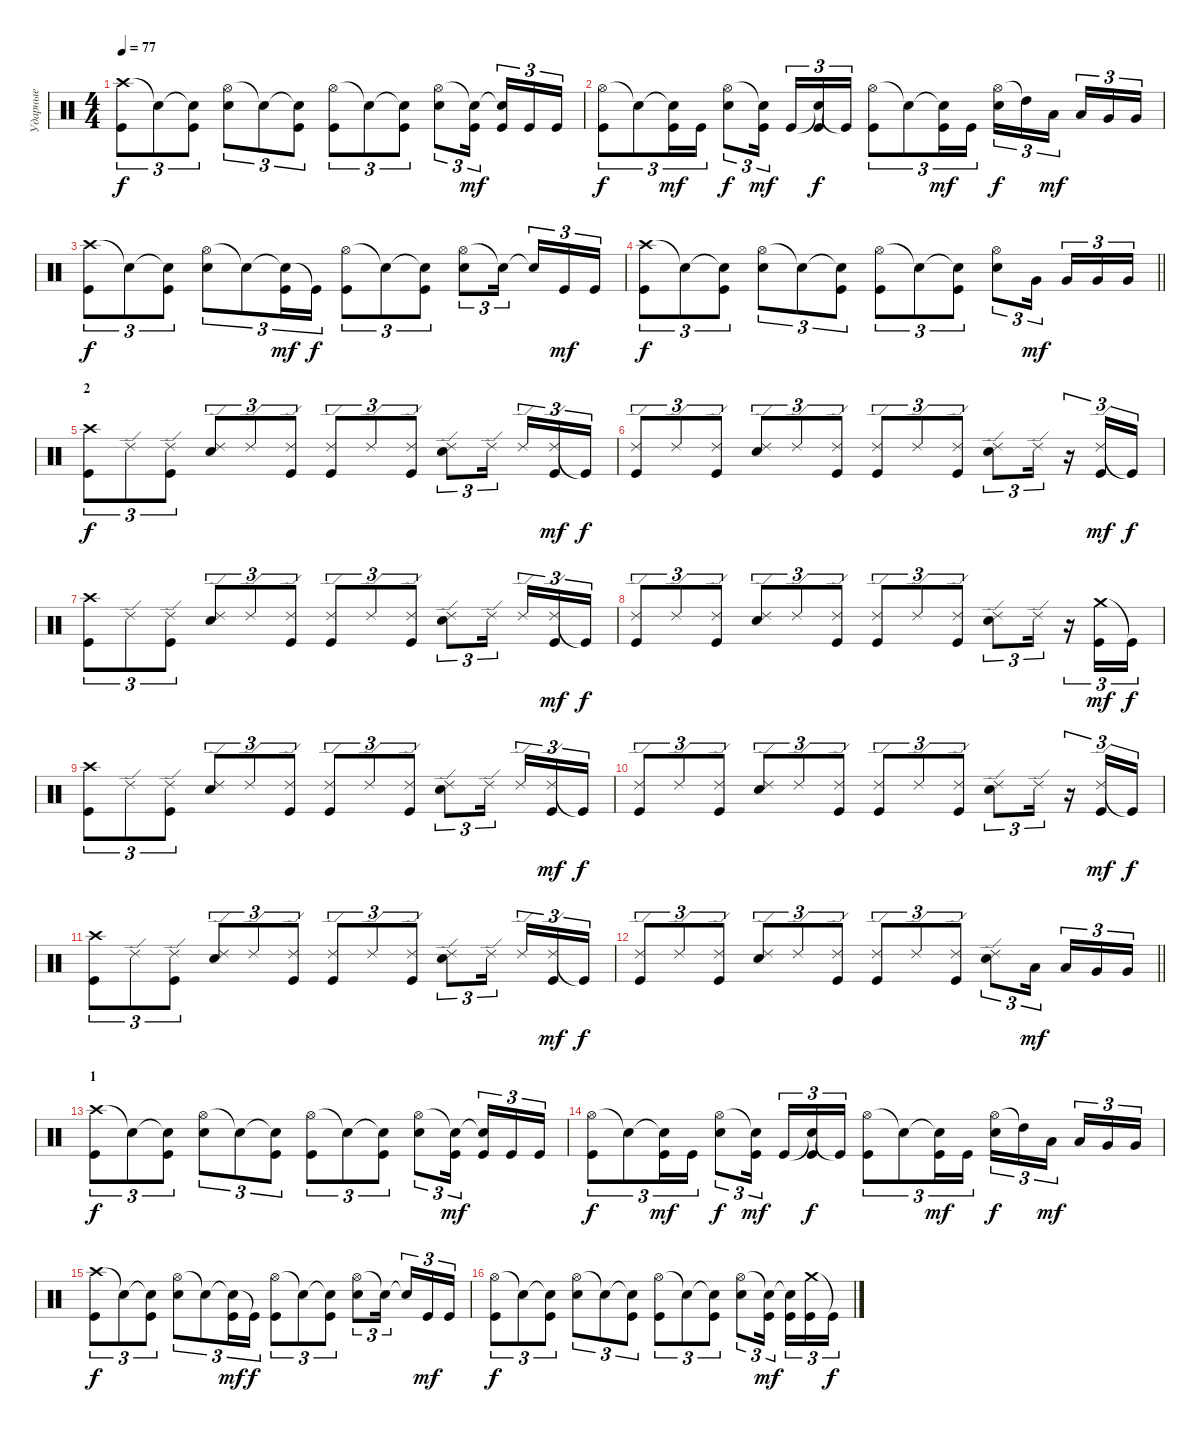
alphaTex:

\track ("Ударные" "Ударные") {instrument percussion}
\staff {score}
\articulation defaults
\ts (4 4)
\tempo 77
\clef neutral
\ks c
("Crash high (hit)" "Kick (hit)").8{tu (3 2) dy f} "Snare (hit)"{t}.8{tu (3 2)} ("Snare (hit)"{t} "Kick (hit)").8{tu (3 2)} ("Hi-Hat (open)" "Snare (hit) 2").8{tu (3 2)} "Snare (hit)"{t}.8{tu (3 2)} ("Snare (hit)"{t} "Kick (hit)").8{tu (3 2)} ("Hi-Hat (open)" "Kick (hit)").8{tu (3 2)} "Snare (hit)"{t}.8{tu (3 2)} ("Snare (hit)"{t} "Kick (hit)").8{tu (3 2)} ("Hi-Hat (open)" "Snare (hit) 2").8{tu (3 2)} ("Snare (hit)"{t} "Kick (hit)").16{tu (3 2) dy mf beam splitsecondary} ("Snare (hit)"{t} "Kick (hit)").16{tu (3 2)} "Kick (hit)".16{tu (3 2)} "Kick (hit)".16{tu (3 2)} |
("Hi-Hat (open)" "Kick (hit)").8{tu (3 2) dy f} "Snare (hit)"{t}.8{tu (3 2)} ("Snare (hit)"{t} "Kick (hit)").16{tu (3 2) dy mf} "Kick (hit)".16{tu (3 2)} ("Hi-Hat (open)" "Snare (hit) 2").8{tu (3 2) dy f} ("Snare (hit)"{t} "Kick (hit)").16{tu (3 2) dy mf beam splitsecondary} "Kick (hit)".16{tu (3 2)} ("Snare (hit)"{t} "Kick (hit)").16{tu (3 2) dy f} "Kick (hit)"{t}.16{tu (3 2)} ("Hi-Hat (open)" "Kick (hit)").8{tu (3 2)} "Snare (hit)"{t}.8{tu (3 2)} ("Snare (hit)"{t} "Kick (hit)").16{tu (3 2) dy mf} "Kick (hit)".16{tu (3 2)} ("Hi-Hat (open)" "Snare (hit) 2").16{tu (3 2) dy f} "High Tom (hit)"{t}.16{tu (3 2)} "Low Tom (hit)".16{tu (3 2) dy mf beam splitsecondary} "Low Tom (hit)".16{tu (3 2)} "Very Low Tom (hit)".16{tu (3 2)} "Very Low Tom (hit)".16{tu (3 2)} |
("Crash high (hit)" "Kick (hit)").8{tu (3 2) dy f} "Snare (hit)"{t}.8{tu (3 2)} ("Snare (hit)"{t} "Kick (hit)").8{tu (3 2)} ("Hi-Hat (open)" "Snare (hit) 2").8{tu (3 2)} "Snare (hit)"{t}.8{tu (3 2)} ("Snare (hit)"{t} "Kick (hit)").16{tu (3 2) dy mf} "Kick (hit)"{t}.16{tu (3 2) dy f} ("Hi-Hat (open)" "Kick (hit)").8{tu (3 2)} "Snare (hit)"{t}.8{tu (3 2)} ("Snare (hit)"{t} "Kick (hit)").8{tu (3 2)} ("Hi-Hat (open)" "Snare (hit) 2").8{tu (3 2)} "Snare (hit)"{t}.16{tu (3 2) beam splitsecondary} "Snare (hit)"{t}.16{tu (3 2)} "Kick (hit)".16{tu (3 2) dy mf} "Kick (hit)".16{tu (3 2)} |
\barLineRight lightlight
("Crash high (hit)" "Kick (hit)").8{tu (3 2) dy f} "Snare (hit)"{t}.8{tu (3 2)} ("Snare (hit)"{t} "Kick (hit)").8{tu (3 2)} ("Hi-Hat (open)" "Snare (hit) 2").8{tu (3 2)} "Snare (hit)"{t}.8{tu (3 2)} ("Snare (hit)"{t} "Kick (hit)").8{tu (3 2)} ("Hi-Hat (open)" "Kick (hit)").8{tu (3 2)} "Snare (hit)"{t}.8{tu (3 2)} ("Snare (hit)"{t} "Kick (hit)").8{tu (3 2)} ("Hi-Hat (open)" "Snare (hit) 2").8{tu (3 2)} "Very Low Tom (hit)".16{tu (3 2) dy mf beam splitsecondary} "Very Low Tom (hit)".16{tu (3 2)} "Very Low Tom (hit)".16{tu (3 2)} "Very Low Tom (hit)".16{tu (3 2)} |
\section ("" "2")
("Crash high (hit)" "Kick (hit)").8{tu (3 2) dy f} "Ride (edge) 2".8{tu (3 2)} ("Ride (edge) 2" "Kick (hit)").8{tu (3 2)} ("Ride (edge) 2" "Snare (hit) 2").8{tu (3 2)} "Ride (edge) 2".8{tu (3 2)} ("Ride (edge) 2" "Kick (hit)").8{tu (3 2)} ("Ride (edge) 2" "Kick (hit)").8{tu (3 2)} "Ride (edge) 2".8{tu (3 2)} ("Ride (edge) 2" "Kick (hit)").8{tu (3 2)} ("Ride (edge) 2" "Snare (hit) 2").8{tu (3 2)} "Ride (edge) 2".16{tu (3 2) beam splitsecondary} "Ride (edge) 2".16{tu (3 2)} ("Ride (edge) 2" "Kick (hit)").16{tu (3 2) dy mf} "Kick (hit)"{t}.16{tu (3 2) dy f} |
("Ride (edge) 2" "Kick (hit)").8{tu (3 2)} "Ride (edge) 2".8{tu (3 2)} ("Ride (edge) 2" "Kick (hit)").8{tu (3 2)} ("Ride (edge) 2" "Snare (hit) 2").8{tu (3 2)} "Ride (edge) 2".8{tu (3 2)} ("Ride (edge) 2" "Kick (hit)").8{tu (3 2)} ("Ride (edge) 2" "Kick (hit)").8{tu (3 2)} "Ride (edge) 2".8{tu (3 2)} ("Ride (edge) 2" "Kick (hit)").8{tu (3 2)} ("Ride (edge) 2" "Snare (hit) 2").8{tu (3 2)} "Ride (edge) 2".16{tu (3 2)} r.16{tu (3 2)} ("Ride (edge) 2" "Kick (hit)").16{tu (3 2) dy mf} "Kick (hit)"{t}.16{tu (3 2) dy f} |
("Crash high (hit)" "Kick (hit)").8{tu (3 2)} "Ride (edge) 2".8{tu (3 2)} ("Ride (edge) 2" "Kick (hit)").8{tu (3 2)} ("Ride (edge) 2" "Snare (hit) 2").8{tu (3 2)} "Ride (edge) 2".8{tu (3 2)} ("Ride (edge) 2" "Kick (hit)").8{tu (3 2)} ("Ride (edge) 2" "Kick (hit)").8{tu (3 2)} "Ride (edge) 2".8{tu (3 2)} ("Ride (edge) 2" "Kick (hit)").8{tu (3 2)} ("Ride (edge) 2" "Snare (hit) 2").8{tu (3 2)} "Ride (edge) 2".16{tu (3 2) beam splitsecondary} "Ride (edge) 2".16{tu (3 2)} ("Ride (edge) 2" "Kick (hit)").16{tu (3 2) dy mf} "Kick (hit)"{t}.16{tu (3 2) dy f} |
("Ride (edge) 2" "Kick (hit)").8{tu (3 2)} "Ride (edge) 2".8{tu (3 2)} ("Ride (edge) 2" "Kick (hit)").8{tu (3 2)} ("Ride (edge) 2" "Snare (hit) 2").8{tu (3 2)} "Ride (edge) 2".8{tu (3 2)} ("Ride (edge) 2" "Kick (hit)").8{tu (3 2)} ("Ride (edge) 2" "Kick (hit)").8{tu (3 2)} "Ride (edge) 2".8{tu (3 2)} ("Ride (edge) 2" "Kick (hit)").8{tu (3 2)} ("Ride (edge) 2" "Snare (hit) 2").8{tu (3 2)} "Ride (edge) 2".16{tu (3 2)} r.16{tu (3 2)} ("Crash medium (hit)" "Kick (hit)").16{tu (3 2) dy mf} "Kick (hit)"{t}.16{tu (3 2) dy f} |
("Crash high (hit)" "Kick (hit)").8{tu (3 2)} "Ride (edge) 2".8{tu (3 2)} ("Ride (edge) 2" "Kick (hit)").8{tu (3 2)} ("Ride (edge) 2" "Snare (hit) 2").8{tu (3 2)} "Ride (edge) 2".8{tu (3 2)} ("Ride (edge) 2" "Kick (hit)").8{tu (3 2)} ("Ride (edge) 2" "Kick (hit)").8{tu (3 2)} "Ride (edge) 2".8{tu (3 2)} ("Ride (edge) 2" "Kick (hit)").8{tu (3 2)} ("Ride (edge) 2" "Snare (hit) 2").8{tu (3 2)} "Ride (edge) 2".16{tu (3 2) beam splitsecondary} "Ride (edge) 2".16{tu (3 2)} ("Ride (edge) 2" "Kick (hit)").16{tu (3 2) dy mf} "Kick (hit)"{t}.16{tu (3 2) dy f} |
("Ride (edge) 2" "Kick (hit)").8{tu (3 2)} "Ride (edge) 2".8{tu (3 2)} ("Ride (edge) 2" "Kick (hit)").8{tu (3 2)} ("Ride (edge) 2" "Snare (hit) 2").8{tu (3 2)} "Ride (edge) 2".8{tu (3 2)} ("Ride (edge) 2" "Kick (hit)").8{tu (3 2)} ("Ride (edge) 2" "Kick (hit)").8{tu (3 2)} "Ride (edge) 2".8{tu (3 2)} ("Ride (edge) 2" "Kick (hit)").8{tu (3 2)} ("Ride (edge) 2" "Snare (hit) 2").8{tu (3 2)} "Ride (edge) 2".16{tu (3 2)} r.16{tu (3 2)} ("Ride (edge) 2" "Kick (hit)").16{tu (3 2) dy mf} "Kick (hit)"{t}.16{tu (3 2) dy f} |
("Crash high (hit)" "Kick (hit)").8{tu (3 2)} "Ride (edge) 2".8{tu (3 2)} ("Ride (edge) 2" "Kick (hit)").8{tu (3 2)} ("Ride (edge) 2" "Snare (hit) 2").8{tu (3 2)} "Ride (edge) 2".8{tu (3 2)} ("Ride (edge) 2" "Kick (hit)").8{tu (3 2)} ("Ride (edge) 2" "Kick (hit)").8{tu (3 2)} "Ride (edge) 2".8{tu (3 2)} ("Ride (edge) 2" "Kick (hit)").8{tu (3 2)} ("Ride (edge) 2" "Snare (hit) 2").8{tu (3 2)} "Ride (edge) 2".16{tu (3 2) beam splitsecondary} "Ride (edge) 2".16{tu (3 2)} ("Ride (edge) 2" "Kick (hit)").16{tu (3 2) dy mf} "Kick (hit)"{t}.16{tu (3 2) dy f} |
\barLineRight lightlight
("Ride (edge) 2" "Kick (hit)").8{tu (3 2)} "Ride (edge) 2".8{tu (3 2)} ("Ride (edge) 2" "Kick (hit)").8{tu (3 2)} ("Ride (edge) 2" "Snare (hit) 2").8{tu (3 2)} "Ride (edge) 2".8{tu (3 2)} ("Ride (edge) 2" "Kick (hit)").8{tu (3 2)} ("Ride (edge) 2" "Kick (hit)").8{tu (3 2)} "Ride (edge) 2".8{tu (3 2)} ("Ride (edge) 2" "Kick (hit)").8{tu (3 2)} ("Ride (edge) 2" "Snare (hit) 2").8{tu (3 2)} "Low Tom (hit)".16{tu (3 2) dy mf beam splitsecondary} "Low Tom (hit)".16{tu (3 2)} "Very Low Tom (hit)".16{tu (3 2)} "Very Low Tom (hit)".16{tu (3 2)} |
\section ("" "1")
("Crash high (hit)" "Kick (hit)").8{tu (3 2) dy f} "Snare (hit)"{t}.8{tu (3 2)} ("Snare (hit)"{t} "Kick (hit)").8{tu (3 2)} ("Hi-Hat (open)" "Snare (hit) 2").8{tu (3 2)} "Snare (hit)"{t}.8{tu (3 2)} ("Snare (hit)"{t} "Kick (hit)").8{tu (3 2)} ("Hi-Hat (open)" "Kick (hit)").8{tu (3 2)} "Snare (hit)"{t}.8{tu (3 2)} ("Snare (hit)"{t} "Kick (hit)").8{tu (3 2)} ("Hi-Hat (open)" "Snare (hit) 2").8{tu (3 2)} ("Snare (hit)"{t} "Kick (hit)").16{tu (3 2) dy mf beam splitsecondary} ("Snare (hit)"{t} "Kick (hit)").16{tu (3 2)} "Kick (hit)".16{tu (3 2)} "Kick (hit)".16{tu (3 2)} |
("Hi-Hat (open)" "Kick (hit)").8{tu (3 2) dy f} "Snare (hit)"{t}.8{tu (3 2)} ("Snare (hit)"{t} "Kick (hit)").16{tu (3 2) dy mf} "Kick (hit)".16{tu (3 2)} ("Hi-Hat (open)" "Snare (hit) 2").8{tu (3 2) dy f} ("Snare (hit)"{t} "Kick (hit)").16{tu (3 2) dy mf beam splitsecondary} "Kick (hit)".16{tu (3 2)} ("Snare (hit)"{t} "Kick (hit)").16{tu (3 2) dy f} "Kick (hit)"{t}.16{tu (3 2)} ("Hi-Hat (open)" "Kick (hit)").8{tu (3 2)} "Snare (hit)"{t}.8{tu (3 2)} ("Snare (hit)"{t} "Kick (hit)").16{tu (3 2) dy mf} "Kick (hit)".16{tu (3 2)} ("Hi-Hat (open)" "Snare (hit) 2").16{tu (3 2) dy f} "High Tom (hit)"{t}.16{tu (3 2)} "Low Tom (hit)".16{tu (3 2) dy mf beam splitsecondary} "Low Tom (hit)".16{tu (3 2)} "Very Low Tom (hit)".16{tu (3 2)} "Very Low Tom (hit)".16{tu (3 2)} |
("Crash high (hit)" "Kick (hit)").8{tu (3 2) dy f} "Snare (hit)"{t}.8{tu (3 2)} ("Snare (hit)"{t} "Kick (hit)").8{tu (3 2)} ("Hi-Hat (open)" "Snare (hit) 2").8{tu (3 2)} "Snare (hit)"{t}.8{tu (3 2)} ("Snare (hit)"{t} "Kick (hit)").16{tu (3 2) dy mf} "Kick (hit)"{t}.16{tu (3 2) dy f} ("Hi-Hat (open)" "Kick (hit)").8{tu (3 2)} "Snare (hit)"{t}.8{tu (3 2)} ("Snare (hit)"{t} "Kick (hit)").8{tu (3 2)} ("Hi-Hat (open)" "Snare (hit) 2").8{tu (3 2)} "Snare (hit)"{t}.16{tu (3 2) beam splitsecondary} "Snare (hit)"{t}.16{tu (3 2)} "Kick (hit)".16{tu (3 2) dy mf} "Kick (hit)".16{tu (3 2)} |
("Hi-Hat (open)" "Kick (hit)").8{tu (3 2) dy f} "Snare (hit)"{t}.8{tu (3 2)} ("Snare (hit)"{t} "Kick (hit)").8{tu (3 2)} ("Hi-Hat (open)" "Snare (hit) 2").8{tu (3 2)} "Snare (hit)"{t}.8{tu (3 2)} ("Snare (hit)"{t} "Kick (hit)").8{tu (3 2)} ("Hi-Hat (open)" "Kick (hit)").8{tu (3 2)} "Snare (hit)"{t}.8{tu (3 2)} ("Snare (hit)"{t} "Kick (hit)").8{tu (3 2)} ("Hi-Hat (open)" "Snare (hit) 2").8{tu (3 2)} ("Snare (hit)"{t} "Kick (hit)").16{tu (3 2) dy mf beam splitsecondary} ("Snare (hit)"{t} "Kick (hit)").16{tu (3 2)} ("Crash medium (hit)" "Kick (hit)").16{tu (3 2)} "Kick (hit)"{t}.16{tu (3 2) dy f}
